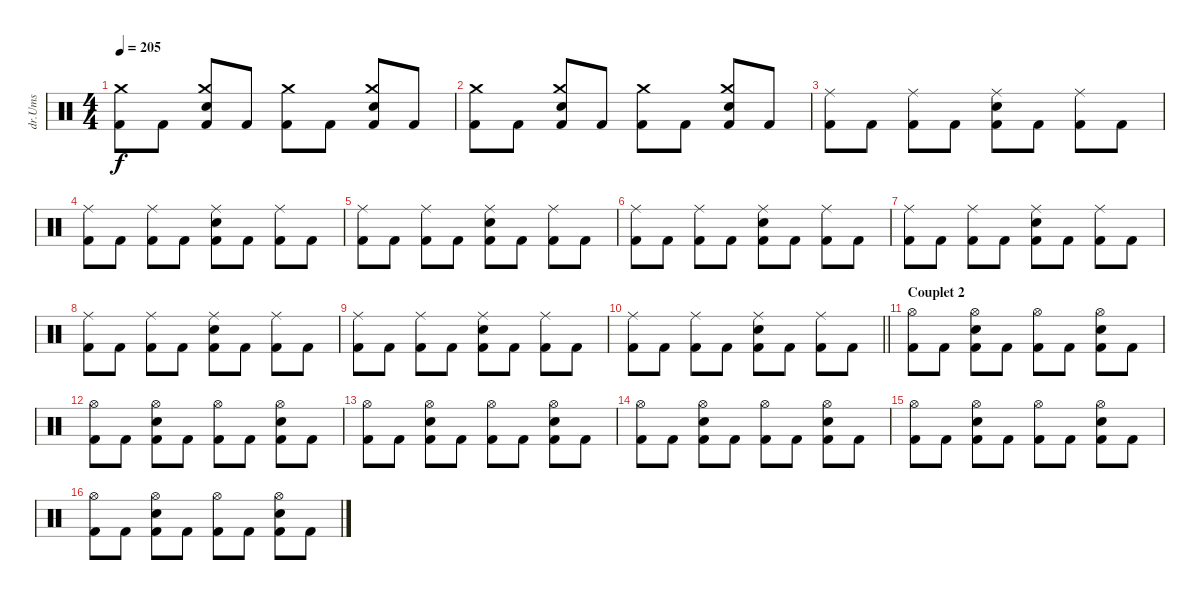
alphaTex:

\track ("dr.Ums" "dr.Ums") {instrument percussion}
\staff {score}
\articulation defaults
\ts (4 4)
\tempo 205
\clef neutral
\ks c
("Kick (hit) 2" "Crash medium (hit)").8{dy f} "Kick (hit) 2".8 ("Kick (hit) 2" "Crash medium (hit)" "Snare (hit) 2").8 "Kick (hit) 2".8 ("Kick (hit) 2" "Crash medium (hit)").8 "Kick (hit) 2".8 ("Kick (hit) 2" "Crash medium (hit)" "Snare (hit) 2").8 "Kick (hit) 2".8 |
("Kick (hit) 2" "Crash medium (hit)").8 "Kick (hit) 2".8 ("Kick (hit) 2" "Crash medium (hit)" "Snare (hit) 2").8 "Kick (hit) 2".8 ("Kick (hit) 2" "Crash medium (hit)").8 "Kick (hit) 2".8 ("Kick (hit) 2" "Crash medium (hit)" "Snare (hit) 2").8 "Kick (hit) 2".8 |
("Ride (middle)" "Kick (hit) 2").8 "Kick (hit) 2".8 ("Ride (middle)" "Kick (hit) 2").8 "Kick (hit) 2".8 ("Ride (middle)" "Snare (hit) 2" "Kick (hit) 2").8 "Kick (hit) 2".8 ("Ride (middle)" "Kick (hit) 2").8 "Kick (hit) 2".8 |
("Ride (middle)" "Kick (hit) 2").8 "Kick (hit) 2".8 ("Ride (middle)" "Kick (hit) 2").8 "Kick (hit) 2".8 ("Ride (middle)" "Snare (hit) 2" "Kick (hit) 2").8 "Kick (hit) 2".8 ("Ride (middle)" "Kick (hit) 2").8 "Kick (hit) 2".8 |
("Ride (middle)" "Kick (hit) 2").8 "Kick (hit) 2".8 ("Ride (middle)" "Kick (hit) 2").8 "Kick (hit) 2".8 ("Ride (middle)" "Snare (hit) 2" "Kick (hit) 2").8 "Kick (hit) 2".8 ("Ride (middle)" "Kick (hit) 2").8 "Kick (hit) 2".8 |
("Ride (middle)" "Kick (hit) 2").8 "Kick (hit) 2".8 ("Ride (middle)" "Kick (hit) 2").8 "Kick (hit) 2".8 ("Ride (middle)" "Snare (hit) 2" "Kick (hit) 2").8 "Kick (hit) 2".8 ("Ride (middle)" "Kick (hit) 2").8 "Kick (hit) 2".8 |
("Ride (middle)" "Kick (hit) 2").8 "Kick (hit) 2".8 ("Ride (middle)" "Kick (hit) 2").8 "Kick (hit) 2".8 ("Ride (middle)" "Snare (hit) 2" "Kick (hit) 2").8 "Kick (hit) 2".8 ("Ride (middle)" "Kick (hit) 2").8 "Kick (hit) 2".8 |
("Ride (middle)" "Kick (hit) 2").8 "Kick (hit) 2".8 ("Ride (middle)" "Kick (hit) 2").8 "Kick (hit) 2".8 ("Ride (middle)" "Snare (hit) 2" "Kick (hit) 2").8 "Kick (hit) 2".8 ("Ride (middle)" "Kick (hit) 2").8 "Kick (hit) 2".8 |
("Ride (middle)" "Kick (hit) 2").8 "Kick (hit) 2".8 ("Ride (middle)" "Kick (hit) 2").8 "Kick (hit) 2".8 ("Ride (middle)" "Snare (hit) 2" "Kick (hit) 2").8 "Kick (hit) 2".8 ("Ride (middle)" "Kick (hit) 2").8 "Kick (hit) 2".8 |
\barLineRight lightlight
("Ride (middle)" "Kick (hit) 2").8 "Kick (hit) 2".8 ("Ride (middle)" "Kick (hit) 2").8 "Kick (hit) 2".8 ("Ride (middle)" "Snare (hit) 2" "Kick (hit) 2").8 "Kick (hit) 2".8 ("Ride (middle)" "Kick (hit) 2").8 "Kick (hit) 2".8 |
\section ("" "Couplet 2")
("Kick (hit) 2" "Hi-Hat (open)").8 "Kick (hit) 2".8 ("Kick (hit) 2" "Hi-Hat (open)" "Snare (hit) 2").8 "Kick (hit) 2".8 ("Kick (hit) 2" "Hi-Hat (open)").8 "Kick (hit) 2".8 ("Kick (hit) 2" "Hi-Hat (open)" "Snare (hit) 2").8 "Kick (hit) 2".8 |
("Kick (hit) 2" "Hi-Hat (open)").8 "Kick (hit) 2".8 ("Kick (hit) 2" "Hi-Hat (open)" "Snare (hit) 2").8 "Kick (hit) 2".8 ("Kick (hit) 2" "Hi-Hat (open)").8 "Kick (hit) 2".8 ("Kick (hit) 2" "Hi-Hat (open)" "Snare (hit) 2").8 "Kick (hit) 2".8 |
("Kick (hit) 2" "Hi-Hat (open)").8 "Kick (hit) 2".8 ("Kick (hit) 2" "Hi-Hat (open)" "Snare (hit) 2").8 "Kick (hit) 2".8 ("Kick (hit) 2" "Hi-Hat (open)").8 "Kick (hit) 2".8 ("Kick (hit) 2" "Hi-Hat (open)" "Snare (hit) 2").8 "Kick (hit) 2".8 |
("Kick (hit) 2" "Hi-Hat (open)").8 "Kick (hit) 2".8 ("Kick (hit) 2" "Hi-Hat (open)" "Snare (hit) 2").8 "Kick (hit) 2".8 ("Kick (hit) 2" "Hi-Hat (open)").8 "Kick (hit) 2".8 ("Kick (hit) 2" "Hi-Hat (open)" "Snare (hit) 2").8 "Kick (hit) 2".8 |
("Kick (hit) 2" "Hi-Hat (open)").8 "Kick (hit) 2".8 ("Kick (hit) 2" "Hi-Hat (open)" "Snare (hit) 2").8 "Kick (hit) 2".8 ("Kick (hit) 2" "Hi-Hat (open)").8 "Kick (hit) 2".8 ("Kick (hit) 2" "Hi-Hat (open)" "Snare (hit) 2").8 "Kick (hit) 2".8 |
("Kick (hit) 2" "Hi-Hat (open)").8 "Kick (hit) 2".8 ("Kick (hit) 2" "Hi-Hat (open)" "Snare (hit) 2").8 "Kick (hit) 2".8 ("Kick (hit) 2" "Hi-Hat (open)").8 "Kick (hit) 2".8 ("Kick (hit) 2" "Hi-Hat (open)" "Snare (hit) 2").8 "Kick (hit) 2".8
